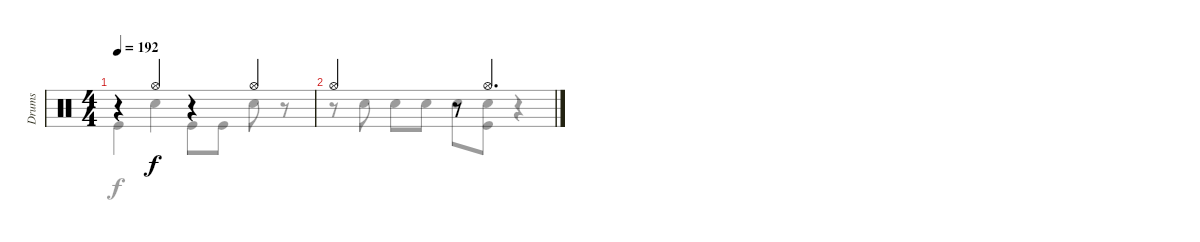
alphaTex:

\track ("Drums" "Drums") {instrument percussion}
\staff {score}
\articulation defaults
\voice
\ts (4 4)
\tempo 192
\clef neutral
\ks c
r.4{dy f} "Hi-Hat (open)".4 r.4 "Hi-Hat (open)".4 |
"Hi-Hat (open)".2 r.8 "Hi-Hat (open)".4{d}
\voice
\clef neutral
\ottava regular
\simile none
\ks c "Kick (hit)".4{dy f} "Snare (hit) 2".4 "Kick (hit)".8 "Kick (hit)".8 "Snare (hit) 2".8
r.8 |
r.8 "Snare (hit) 2".8 "Snare (hit) 2".8 "Snare (hit) 2".8 "Snare (hit) 2".8 ("Snare (hit) 2" "Kick (hit)").8 r.4
